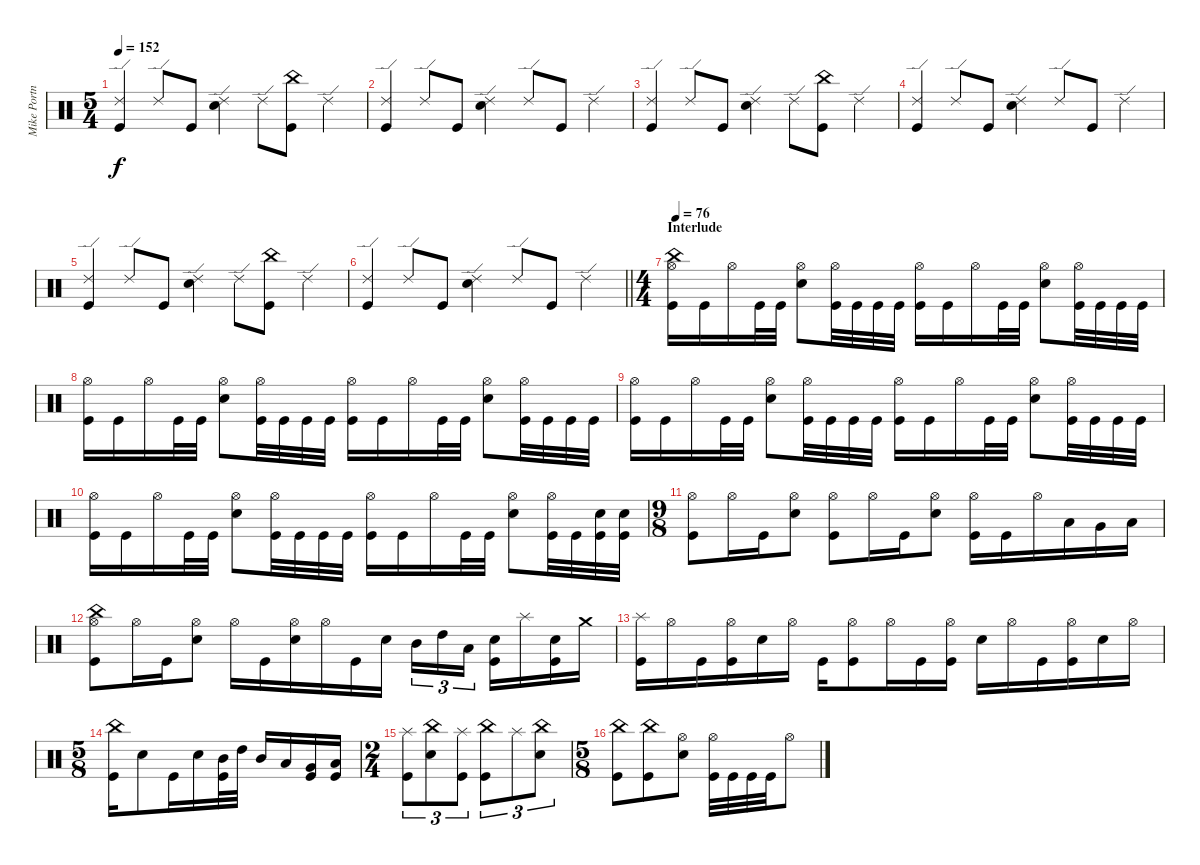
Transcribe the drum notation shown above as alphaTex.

\track ("Mike Portnoy (Drums)" "Mike Portn") {instrument percussion}
\staff {score}
\articulation defaults
\ts (5 4)
\tempo 152
\clef neutral
\ks c
("Kick (hit)" "Ride (edge) 2").4{dy f} "Ride (edge) 2".8 "Kick (hit)".8 ("Snare (hit) 2" "Ride (edge) 2").4 "Ride (edge) 2".8 ("Kick (hit)" "China (hit)").8 "Ride (edge) 2".4 |
("Kick (hit)" "Ride (edge) 2").4 "Ride (edge) 2".8 "Kick (hit)".8 ("Snare (hit) 2" "Ride (edge) 2").4 "Ride (edge) 2".8 "Kick (hit)".8 "Ride (edge) 2".4 |
("Kick (hit)" "Ride (edge) 2").4 "Ride (edge) 2".8 "Kick (hit)".8 ("Snare (hit) 2" "Ride (edge) 2").4 "Ride (edge) 2".8 ("Kick (hit)" "China (hit)").8 "Ride (edge) 2".4 |
("Kick (hit)" "Ride (edge) 2").4 "Ride (edge) 2".8 "Kick (hit)".8 ("Snare (hit) 2" "Ride (edge) 2").4 "Ride (edge) 2".8 "Kick (hit)".8 "Ride (edge) 2".4 |
("Kick (hit)" "Ride (edge) 2").4 "Ride (edge) 2".8 "Kick (hit)".8 ("Snare (hit) 2" "Ride (edge) 2").4 "Ride (edge) 2".8 ("Kick (hit)" "China (hit)").8 "Ride (edge) 2".4 |
\barLineRight lightlight
("Kick (hit)" "Ride (edge) 2").4 "Ride (edge) 2".8 "Kick (hit)".8 ("Snare (hit) 2" "Ride (edge) 2").4 "Ride (edge) 2".8 "Kick (hit)".8 "Ride (edge) 2".4 |
\ts (4 4)
\section ("" "Interlude")
\tempo 76
("Kick (hit)" "Hi-Hat (open)" "China (hit)").16 "Kick (hit)".16 "Hi-Hat (open)".16 "Kick (hit)".32 "Kick (hit)".32 ("Snare (hit) 2" "Hi-Hat (open)").8 ("Kick (hit)" "Hi-Hat (open)").32 "Kick (hit)".32 "Kick (hit)".32 "Kick (hit)".32 ("Kick (hit)" "Hi-Hat (open)").16 "Kick (hit)".16 "Hi-Hat (open)".16 "Kick (hit)".32 "Kick (hit)".32 ("Snare (hit) 2" "Hi-Hat (open)").8 ("Kick (hit)" "Hi-Hat (open)").32 "Kick (hit)".32 "Kick (hit)".32 "Kick (hit)".32 |
("Kick (hit)" "Hi-Hat (open)").16 "Kick (hit)".16 "Hi-Hat (open)".16 "Kick (hit)".32 "Kick (hit)".32 ("Snare (hit) 2" "Hi-Hat (open)").8 ("Kick (hit)" "Hi-Hat (open)").32 "Kick (hit)".32 "Kick (hit)".32 "Kick (hit)".32 ("Kick (hit)" "Hi-Hat (open)").16 "Kick (hit)".16 "Hi-Hat (open)".16 "Kick (hit)".32 "Kick (hit)".32 ("Snare (hit) 2" "Hi-Hat (open)").8 ("Kick (hit)" "Hi-Hat (open)").32 "Kick (hit)".32 "Kick (hit)".32 "Kick (hit)".32 |
("Kick (hit)" "Hi-Hat (open)").16 "Kick (hit)".16 "Hi-Hat (open)".16 "Kick (hit)".32 "Kick (hit)".32 ("Snare (hit) 2" "Hi-Hat (open)").8 ("Kick (hit)" "Hi-Hat (open)").32 "Kick (hit)".32 "Kick (hit)".32 "Kick (hit)".32 ("Kick (hit)" "Hi-Hat (open)").16 "Kick (hit)".16 "Hi-Hat (open)".16 "Kick (hit)".32 "Kick (hit)".32 ("Snare (hit) 2" "Hi-Hat (open)").8 ("Kick (hit)" "Hi-Hat (open)").32 "Kick (hit)".32 "Kick (hit)".32 "Kick (hit)".32 |
("Kick (hit)" "Hi-Hat (open)").16 "Kick (hit)".16 "Hi-Hat (open)".16 "Kick (hit)".32 "Kick (hit)".32 ("Snare (hit) 2" "Hi-Hat (open)").8 ("Kick (hit)" "Hi-Hat (open)").32 "Kick (hit)".32 "Kick (hit)".32 "Kick (hit)".32 ("Kick (hit)" "Hi-Hat (open)").16 "Kick (hit)".16 "Hi-Hat (open)".16 "Kick (hit)".32 "Kick (hit)".32 ("Snare (hit) 2" "Hi-Hat (open)").8 ("Kick (hit)" "Hi-Hat (open)").32 "Kick (hit)".32 ("Kick (hit)" "Snare (hit) 2").32 ("Kick (hit)" "Snare (hit) 2").32 |
\ts (9 8)
("Kick (hit)" "Hi-Hat (open)").8 "Hi-Hat (open)".16 "Kick (hit)".16 ("Snare (hit) 2" "Hi-Hat (open)").8 ("Kick (hit)" "Hi-Hat (open)").8 "Hi-Hat (open)".16 "Kick (hit)".16 ("Snare (hit) 2" "Hi-Hat (open)").8 ("Kick (hit)" "Hi-Hat (open)").16 "Kick (hit)".16 "Hi-Hat (open)".16 "Low Tom (hit)".16 "Very Low Tom (hit)".16 "Low Floor Tom (hit)".16 |
("Kick (hit)" "Hi-Hat (open)" "China (hit)").8 "Hi-Hat (open)".16 "Kick (hit)".16 ("Snare (hit) 2" "Hi-Hat (open)").8 "Hi-Hat (open)".16 "Kick (hit)".16 ("Snare (hit) 2" "Hi-Hat (open)").16 "Hi-Hat (open)".16 "Kick (hit)".16 "Snare (hit) 2".16 "Mid Tom (hit)".16{tu (3 2)} "High Tom (hit)".16{tu (3 2)} "Low Tom (hit)".16{tu (3 2)} ("Kick (hit)" "Snare (hit) 2").16 "Splash (hit)".16 ("Kick (hit)" "Snare (hit) 2").16 "Crash medium (hit)".16 |
("Kick (hit)" "Splash (hit)").16 "Hi-Hat (open)".16 "Kick (hit)".16 ("Kick (hit)" "Hi-Hat (open)").16 "Snare (hit) 2".16 "Hi-Hat (open)".16 "Kick (hit)".16 ("Kick (hit)" "Hi-Hat (open)").8 "Hi-Hat (open)".16 "Kick (hit)".16 ("Kick (hit)" "Hi-Hat (open)").16 "Snare (hit) 2".16 "Hi-Hat (open)".16 "Kick (hit)".16 ("Kick (hit)" "Hi-Hat (open)").16 "Snare (hit) 2".16 "Hi-Hat (open)".16 |
\ts (5 8)
("China (hit)" "Kick (hit)").16 "Snare (hit) 2".8 "Kick (hit)".16 "Snare (hit) 2".16 ("Mid Tom (hit)" "Kick (hit)").32 "High Tom (hit)".32 "Mid Tom (hit)".16 "Low Tom (hit)".16 ("Very Low Tom (hit)" "Kick (hit)").16 ("Low Floor Tom (hit)" "Kick (hit)").16 |
\ts (2 4)
("Kick (hit)" "Splash (hit)").8{tu (3 2)} ("Snare (hit) 2" "China (hit)").8{tu (3 2)} ("Kick (hit)" "Splash (hit)").8{tu (3 2)} ("Kick (hit)" "China (hit)").8{tu (3 2)} "Splash (hit)".8{tu (3 2)} ("Snare (hit) 2" "China (hit)").8{tu (3 2)} |
\ts (5 8)
("Kick (hit)" "China (hit)").8 ("Kick (hit)" "China (hit)").8 ("Snare (hit) 2" "Hi-Hat (open)").8 ("Kick (hit)" "Hi-Hat (open)").32 "Kick (hit)".32 "Kick (hit)".32 "Kick (hit)".32 "Hi-Hat (open)".8
